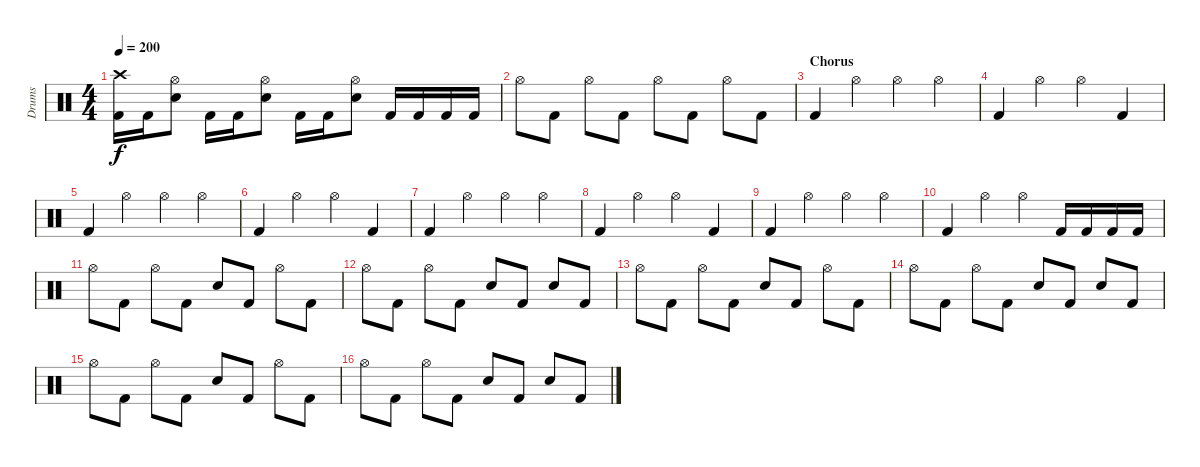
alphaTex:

\track ("Drums" "Drums") {instrument percussion}
\staff {score}
\articulation defaults
\ts (4 4)
\tempo 200
\clef neutral
\ks c
("Crash high (hit)" "Kick (hit) 2").16{dy f} "Kick (hit) 2".16 ("Hi-Hat (open)" "Snare (hit) 2").8 "Kick (hit) 2".16 "Kick (hit) 2".16 ("Hi-Hat (open)" "Snare (hit) 2").8 "Kick (hit) 2".16 "Kick (hit) 2".16 ("Hi-Hat (open)" "Snare (hit) 2").8 "Kick (hit) 2".16 "Kick (hit) 2".16 "Kick (hit) 2".16 "Kick (hit) 2".16 |
"Hi-Hat (open)".8 "Kick (hit) 2".8 "Hi-Hat (open)".8 "Kick (hit) 2".8 "Hi-Hat (open)".8 "Kick (hit) 2".8 "Hi-Hat (open)".8 "Kick (hit) 2".8 |
\section ("" "Chorus")
"Kick (hit) 2".4 "Hi-Hat (open)".4 "Hi-Hat (open)".4 "Hi-Hat (open)".4 |
"Kick (hit) 2".4 "Hi-Hat (open)".4 "Hi-Hat (open)".4 "Kick (hit) 2".4 |
"Kick (hit) 2".4 "Hi-Hat (open)".4 "Hi-Hat (open)".4 "Hi-Hat (open)".4 |
"Kick (hit) 2".4 "Hi-Hat (open)".4 "Hi-Hat (open)".4 "Kick (hit) 2".4 |
"Kick (hit) 2".4 "Hi-Hat (open)".4 "Hi-Hat (open)".4 "Hi-Hat (open)".4 |
"Kick (hit) 2".4 "Hi-Hat (open)".4 "Hi-Hat (open)".4 "Kick (hit) 2".4 |
"Kick (hit) 2".4 "Hi-Hat (open)".4 "Hi-Hat (open)".4 "Hi-Hat (open)".4 |
"Kick (hit) 2".4 "Hi-Hat (open)".4 "Hi-Hat (open)".4 "Kick (hit) 2".16 "Kick (hit) 2".16 "Kick (hit) 2".16 "Kick (hit) 2".16 |
"Hi-Hat (open)".8 "Kick (hit) 2".8 "Hi-Hat (open)".8 "Kick (hit) 2".8 "Snare (hit) 2".8 "Kick (hit) 2".8 "Hi-Hat (open)".8 "Kick (hit) 2".8 |
"Hi-Hat (open)".8 "Kick (hit) 2".8 "Hi-Hat (open)".8 "Kick (hit) 2".8 "Snare (hit) 2".8 "Kick (hit) 2".8 "Snare (hit) 2".8 "Kick (hit) 2".8 |
"Hi-Hat (open)".8 "Kick (hit) 2".8 "Hi-Hat (open)".8 "Kick (hit) 2".8 "Snare (hit) 2".8 "Kick (hit) 2".8 "Hi-Hat (open)".8 "Kick (hit) 2".8 |
"Hi-Hat (open)".8 "Kick (hit) 2".8 "Hi-Hat (open)".8 "Kick (hit) 2".8 "Snare (hit) 2".8 "Kick (hit) 2".8 "Snare (hit) 2".8 "Kick (hit) 2".8 |
"Hi-Hat (open)".8 "Kick (hit) 2".8 "Hi-Hat (open)".8 "Kick (hit) 2".8 "Snare (hit) 2".8 "Kick (hit) 2".8 "Hi-Hat (open)".8 "Kick (hit) 2".8 |
"Hi-Hat (open)".8 "Kick (hit) 2".8 "Hi-Hat (open)".8 "Kick (hit) 2".8 "Snare (hit) 2".8 "Kick (hit) 2".8 "Snare (hit) 2".8 "Kick (hit) 2".8
